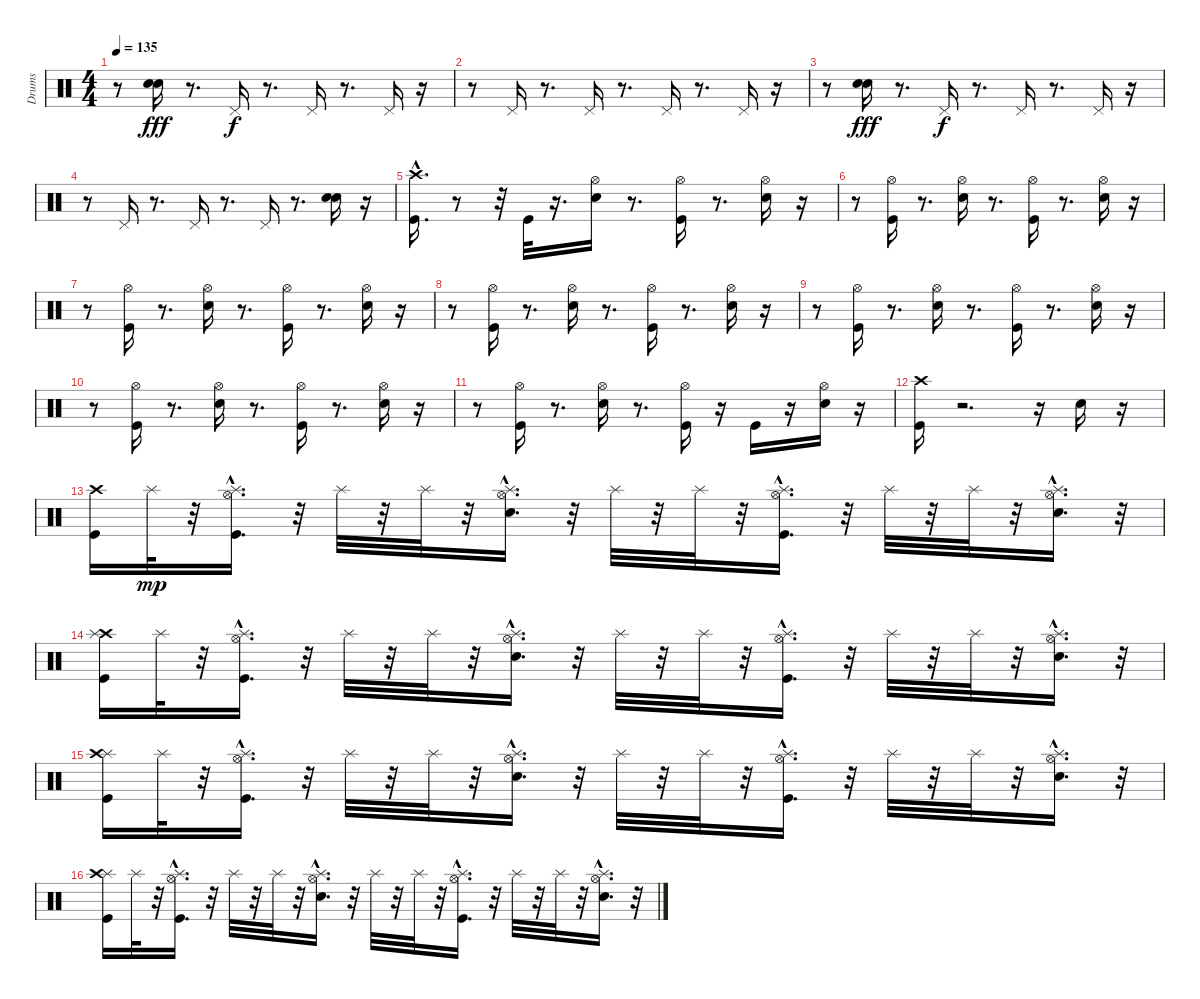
\track ("Drums" "Drums") {instrument percussion}
\staff {score}
\articulation defaults
\ts (4 4)
\tempo 135
\clef neutral
\ks c
r.8{dy f} ("Snare (hit) 2" "Electric Snare (hit)").16{dy fff} r.8{d} "Pedal Hi-Hat (hit)".16{dy f} r.8{d} "Pedal Hi-Hat (hit)".16 r.8{d} "Pedal Hi-Hat (hit)".16 r.16 |
r.8 "Pedal Hi-Hat (hit)".16 r.8{d} "Pedal Hi-Hat (hit)".16 r.8{d} "Pedal Hi-Hat (hit)".16 r.8{d} "Pedal Hi-Hat (hit)".16 r.16 |
r.8 ("Electric Snare (hit)" "Snare (hit) 2").16{dy fff} r.8{d} "Pedal Hi-Hat (hit)".16{dy f} r.8{d} "Pedal Hi-Hat (hit)".16 r.8{d} "Pedal Hi-Hat (hit)".16 r.16 |
r.8 "Pedal Hi-Hat (hit)".16 r.8{d} "Pedal Hi-Hat (hit)".16 r.8{d} "Pedal Hi-Hat (hit)".16 r.8{d} ("Snare (hit) 2" "Electric Snare (hit)").16 r.16 |
("Kick (hit)"{hac} "Crash high (hit)"{hac}).16{d} r.8 r.32 "Kick (hit)".32 r.16{d} ("Hi-Hat (open)" "Snare (hit) 2").16 r.8{d} ("Hi-Hat (open)" "Kick (hit)").16 r.8{d} ("Hi-Hat (open)" "Snare (hit) 2").16 r.16 |
r.8 ("Kick (hit)" "Hi-Hat (open)").16 r.8{d} ("Hi-Hat (open)" "Snare (hit) 2").16 r.8{d} ("Hi-Hat (open)" "Kick (hit)").16 r.8{d} ("Hi-Hat (open)" "Snare (hit) 2").16 r.16 |
r.8 ("Hi-Hat (open)" "Kick (hit)").16 r.8{d} ("Hi-Hat (open)" "Snare (hit) 2").16 r.8{d} ("Hi-Hat (open)" "Kick (hit)").16 r.8{d} ("Hi-Hat (open)" "Snare (hit) 2").16 r.16 |
r.8 ("Hi-Hat (open)" "Kick (hit)").16 r.8{d} ("Hi-Hat (open)" "Snare (hit) 2").16 r.8{d} ("Hi-Hat (open)" "Kick (hit)").16 r.8{d} ("Hi-Hat (open)" "Snare (hit) 2").16 r.16 |
r.8 ("Hi-Hat (open)" "Kick (hit)").16 r.8{d} ("Hi-Hat (open)" "Snare (hit) 2").16 r.8{d} ("Hi-Hat (open)" "Kick (hit)").16 r.8{d} ("Hi-Hat (open)" "Snare (hit) 2").16 r.16 |
r.8 ("Hi-Hat (open)" "Kick (hit)").16 r.8{d} ("Hi-Hat (open)" "Snare (hit) 2").16 r.8{d} ("Hi-Hat (open)" "Kick (hit)").16 r.8{d} ("Hi-Hat (open)" "Snare (hit) 2").16 r.16 |
r.8 ("Hi-Hat (open)" "Kick (hit)").16 r.8{d} ("Hi-Hat (open)" "Snare (hit) 2").16 r.8{d} ("Hi-Hat (open)" "Kick (hit)").16 r.16 "Kick (hit)".16 r.16 ("Hi-Hat (open)" "Snare (hit) 2").16 r.16 |
("Kick (hit)" "Crash high (hit)").16 r.2{d} r.16 "Snare (hit) 2".16 r.16 |
("Kick (hit)" "Crash high (hit)").16 "Splash (hit)".32{dy mp} r.32 ("Splash (hit)"{hac} "Hi-Hat (open)" "Kick (hit)").16{d} r.32 "Splash (hit)".32 r.32 "Splash (hit)".32 r.32 ("Snare (hit) 2" "Hi-Hat (open)" "Splash (hit)"{hac}).16{d} r.32 "Splash (hit)".32 r.32 "Splash (hit)".32 r.32 ("Hi-Hat (open)" "Kick (hit)" "Splash (hit)"{hac}).16{d} r.32 "Splash (hit)".32 r.32 "Splash (hit)".32 r.32 ("Hi-Hat (open)" "Snare (hit) 2" "Splash (hit)"{hac}).16{d} r.32 |
("Crash high (hit)" "Kick (hit)" "Splash (hit)").16 "Splash (hit)".32 r.32 ("Hi-Hat (open)" "Splash (hit)"{hac} "Kick (hit)").16{d} r.32 "Splash (hit)".32 r.32 "Splash (hit)".32 r.32 ("Hi-Hat (open)" "Snare (hit) 2" "Splash (hit)"{hac}).16{d} r.32 "Splash (hit)".32 r.32 "Splash (hit)".32 r.32 ("Hi-Hat (open)" "Kick (hit)" "Splash (hit)"{hac}).16{d} r.32 "Splash (hit)".32 r.32 "Splash (hit)".32 r.32 ("Hi-Hat (open)" "Snare (hit) 2" "Splash (hit)"{hac}).16{d} r.32 |
("Splash (hit)" "Crash high (hit)" "Kick (hit)").16 "Splash (hit)".32 r.32 ("Hi-Hat (open)" "Splash (hit)"{hac} "Kick (hit)").16{d} r.32 "Splash (hit)".32 r.32 "Splash (hit)".32 r.32 ("Hi-Hat (open)" "Snare (hit) 2" "Splash (hit)"{hac}).16{d} r.32 "Splash (hit)".32 r.32 "Splash (hit)".32 r.32 ("Hi-Hat (open)" "Kick (hit)" "Splash (hit)"{hac}).16{d} r.32 "Splash (hit)".32 r.32 "Splash (hit)".32 r.32 ("Hi-Hat (open)" "Snare (hit) 2" "Splash (hit)"{hac}).16{d} r.32 |
("Splash (hit)" "Crash high (hit)" "Kick (hit)").16 "Splash (hit)".32 r.32 ("Hi-Hat (open)" "Splash (hit)"{hac} "Kick (hit)").16{d} r.32 "Splash (hit)".32 r.32 "Splash (hit)".32 r.32 ("Hi-Hat (open)" "Snare (hit) 2" "Splash (hit)"{hac}).16{d} r.32 "Splash (hit)".32 r.32 "Splash (hit)".32 r.32 ("Hi-Hat (open)" "Kick (hit)" "Splash (hit)"{hac}).16{d} r.32 "Splash (hit)".32 r.32 "Splash (hit)".32 r.32 ("Hi-Hat (open)" "Snare (hit) 2" "Splash (hit)"{hac}).16{d} r.32
